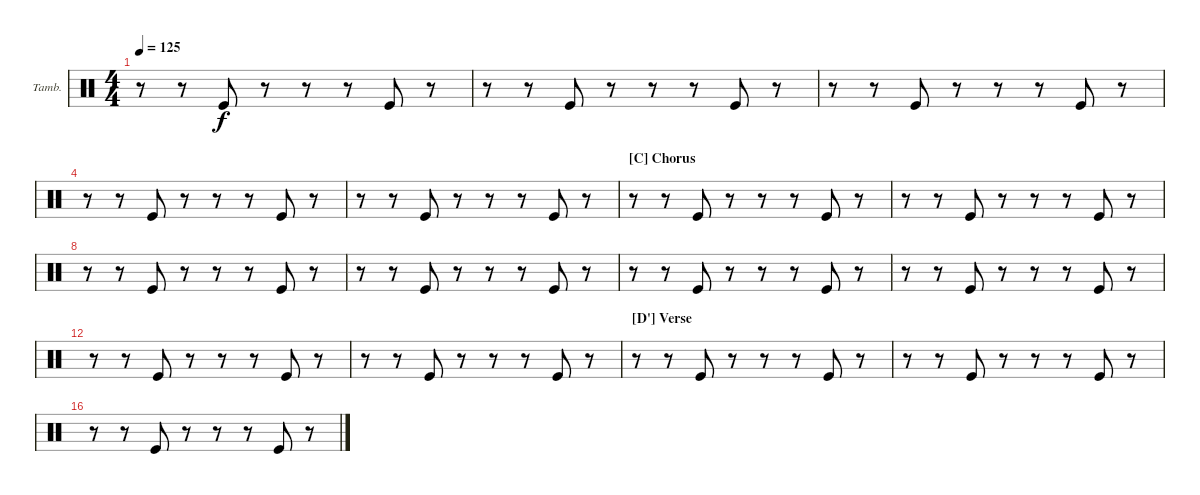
\bracketExtendMode nobrackets
\firstSystemTrackNameOrientation horizontal
\otherSystemsTrackNameOrientation horizontal
\defaultBarNumberDisplay FirstOfSystem
\track ("Tambourine" "Tamb.") {instrument percussion}
\staff {score}
\articulation defaults
\ts (4 4)
\tempo 125
\clef neutral
\ks c
r.8{dy f} r.8 "Kick (hit)".8 r.8 r.8 r.8 "Kick (hit)".8 r.8 |
r.8 r.8 "Kick (hit)".8 r.8 r.8 r.8 "Kick (hit)".8 r.8 |
r.8 r.8 "Kick (hit)".8 r.8 r.8 r.8 "Kick (hit)".8 r.8 |
r.8 r.8 "Kick (hit)".8 r.8 r.8 r.8 "Kick (hit)".8 r.8 |
r.8 r.8 "Kick (hit)".8 r.8 r.8 r.8 "Kick (hit)".8 r.8 |
\section ("C" "Chorus")
r.8 r.8 "Kick (hit)".8 r.8 r.8 r.8 "Kick (hit)".8 r.8 |
r.8 r.8 "Kick (hit)".8 r.8 r.8 r.8 "Kick (hit)".8 r.8 |
r.8 r.8 "Kick (hit)".8 r.8 r.8 r.8 "Kick (hit)".8 r.8 |
r.8 r.8 "Kick (hit)".8 r.8 r.8 r.8 "Kick (hit)".8 r.8 |
r.8 r.8 "Kick (hit)".8 r.8 r.8 r.8 "Kick (hit)".8 r.8 |
r.8 r.8 "Kick (hit)".8 r.8 r.8 r.8 "Kick (hit)".8 r.8 |
r.8 r.8 "Kick (hit)".8 r.8 r.8 r.8 "Kick (hit)".8 r.8 |
r.8 r.8 "Kick (hit)".8 r.8 r.8 r.8 "Kick (hit)".8 r.8 |
\section ("D'" "Verse")
r.8 r.8 "Kick (hit)".8 r.8 r.8 r.8 "Kick (hit)".8 r.8 |
r.8 r.8 "Kick (hit)".8 r.8 r.8 r.8 "Kick (hit)".8 r.8 |
r.8 r.8 "Kick (hit)".8 r.8 r.8 r.8 "Kick (hit)".8 r.8
